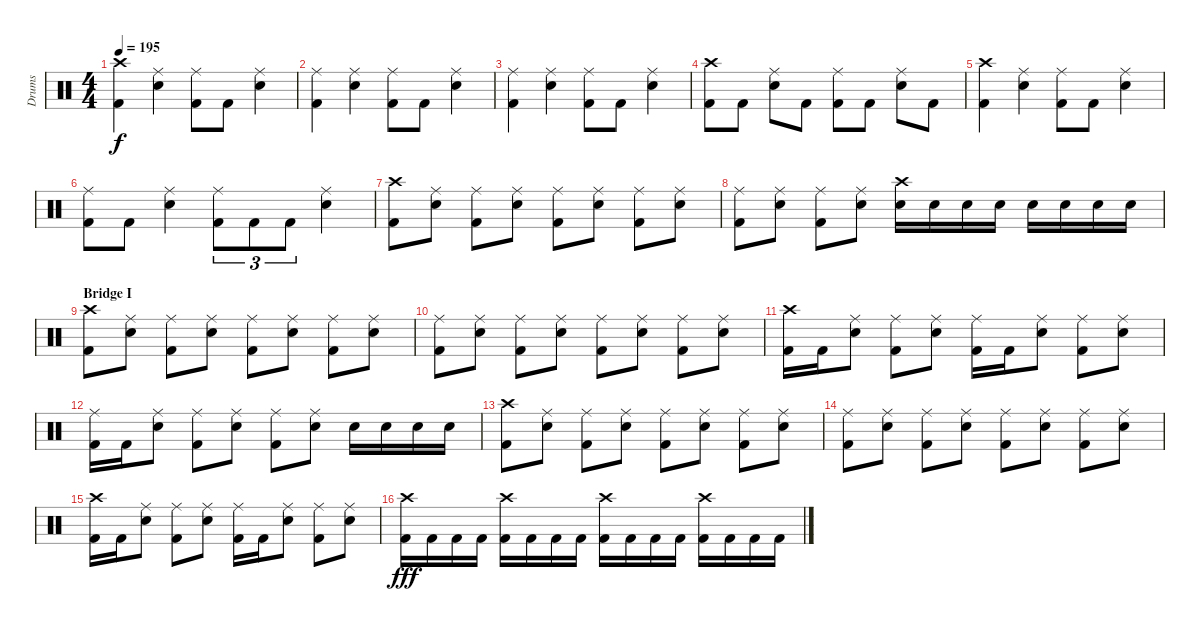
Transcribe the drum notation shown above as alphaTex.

\track ("Drums" "Drums") {instrument percussion}
\staff {score}
\articulation defaults
\ts (4 4)
\tempo 195
\clef neutral
\ks c
("Crash high (hit)" "Kick (hit) 2").4{dy f} ("Ride (middle)" "Snare (hit) 2").4 ("Ride (middle)" "Kick (hit) 2").8 "Kick (hit) 2".8 ("Ride (middle)" "Snare (hit) 2").4 |
("Ride (middle)" "Kick (hit) 2").4 ("Ride (middle)" "Snare (hit) 2").4 ("Ride (middle)" "Kick (hit) 2").8 "Kick (hit) 2".8 ("Ride (middle)" "Snare (hit) 2").4 |
("Ride (middle)" "Kick (hit) 2").4 ("Ride (middle)" "Snare (hit) 2").4 ("Ride (middle)" "Kick (hit) 2").8 "Kick (hit) 2".8 ("Ride (middle)" "Snare (hit) 2").4 |
("Crash high (hit)" "Kick (hit) 2").8 "Kick (hit) 2".8 ("Ride (middle)" "Snare (hit) 2").8 "Kick (hit) 2".8 ("Ride (middle)" "Kick (hit) 2").8 "Kick (hit) 2".8 ("Ride (middle)" "Snare (hit) 2").8 "Kick (hit) 2".8 |
("Crash high (hit)" "Kick (hit) 2").4 ("Ride (middle)" "Snare (hit) 2").4 ("Ride (middle)" "Kick (hit) 2").8 "Kick (hit) 2".8 ("Ride (middle)" "Snare (hit) 2").4 |
("Ride (middle)" "Kick (hit) 2").8 "Kick (hit) 2".8 ("Ride (middle)" "Snare (hit) 2").4 ("Ride (middle)" "Kick (hit) 2").8{tu (3 2)} "Kick (hit) 2".8{tu (3 2)} "Kick (hit) 2".8{tu (3 2)} ("Ride (middle)" "Snare (hit) 2").4 |
("Crash high (hit)" "Kick (hit) 2").8 ("Ride (middle)" "Snare (hit) 2").8 ("Ride (middle)" "Kick (hit) 2").8 ("Ride (middle)" "Snare (hit) 2").8 ("Ride (middle)" "Kick (hit) 2").8 ("Ride (middle)" "Snare (hit) 2").8 ("Ride (middle)" "Kick (hit) 2").8 ("Ride (middle)" "Snare (hit) 2").8 |
("Ride (middle)" "Kick (hit) 2").8 ("Ride (middle)" "Snare (hit) 2").8 ("Ride (middle)" "Kick (hit) 2").8 ("Ride (middle)" "Snare (hit) 2").8 ("Crash high (hit)" "Snare (hit) 2").16 "Snare (hit) 2".16 "Snare (hit) 2".16 "Snare (hit) 2".16 "Snare (hit) 2".16 "Snare (hit) 2".16 "Snare (hit) 2".16 "Snare (hit) 2".16 |
\section ("" "Bridge I")
("Crash high (hit)" "Kick (hit) 2").8 ("Ride (middle)" "Snare (hit) 2").8 ("Ride (middle)" "Kick (hit) 2").8 ("Ride (middle)" "Snare (hit) 2").8 ("Ride (middle)" "Kick (hit) 2").8 ("Ride (middle)" "Snare (hit) 2").8 ("Ride (middle)" "Kick (hit) 2").8 ("Ride (middle)" "Snare (hit) 2").8 |
("Ride (middle)" "Kick (hit) 2").8 ("Ride (middle)" "Snare (hit) 2").8 ("Ride (middle)" "Kick (hit) 2").8 ("Ride (middle)" "Snare (hit) 2").8 ("Ride (middle)" "Kick (hit) 2").8 ("Ride (middle)" "Snare (hit) 2").8 ("Ride (middle)" "Kick (hit) 2").8 ("Ride (middle)" "Snare (hit) 2").8 |
("Crash high (hit)" "Kick (hit) 2").16 "Kick (hit) 2".16 ("Ride (middle)" "Snare (hit) 2").8 ("Ride (middle)" "Kick (hit) 2").8 ("Ride (middle)" "Snare (hit) 2").8 ("Ride (middle)" "Kick (hit) 2").16 "Kick (hit) 2".16 ("Ride (middle)" "Snare (hit) 2").8 ("Ride (middle)" "Kick (hit) 2").8 ("Ride (middle)" "Snare (hit) 2").8 |
("Ride (middle)" "Kick (hit) 2").16 "Kick (hit) 2".16 ("Ride (middle)" "Snare (hit) 2").8 ("Ride (middle)" "Kick (hit) 2").8 ("Ride (middle)" "Snare (hit) 2").8 ("Ride (middle)" "Kick (hit) 2").8 ("Ride (middle)" "Snare (hit) 2").8 "Snare (hit) 2".16 "Snare (hit) 2".16 "Snare (hit) 2".16 "Snare (hit) 2".16 |
("Crash high (hit)" "Kick (hit) 2").8 ("Ride (middle)" "Snare (hit) 2").8 ("Ride (middle)" "Kick (hit) 2").8 ("Ride (middle)" "Snare (hit) 2").8 ("Ride (middle)" "Kick (hit) 2").8 ("Ride (middle)" "Snare (hit) 2").8 ("Ride (middle)" "Kick (hit) 2").8 ("Ride (middle)" "Snare (hit) 2").8 |
("Ride (middle)" "Kick (hit) 2").8 ("Ride (middle)" "Snare (hit) 2").8 ("Ride (middle)" "Kick (hit) 2").8 ("Ride (middle)" "Snare (hit) 2").8 ("Ride (middle)" "Kick (hit) 2").8 ("Ride (middle)" "Snare (hit) 2").8 ("Ride (middle)" "Kick (hit) 2").8 ("Ride (middle)" "Snare (hit) 2").8 |
("Crash high (hit)" "Kick (hit) 2").16 "Kick (hit) 2".16 ("Ride (middle)" "Snare (hit) 2").8 ("Ride (middle)" "Kick (hit) 2").8 ("Ride (middle)" "Snare (hit) 2").8 ("Ride (middle)" "Kick (hit) 2").16 "Kick (hit) 2".16 ("Ride (middle)" "Snare (hit) 2").8 ("Ride (middle)" "Kick (hit) 2").8 ("Ride (middle)" "Snare (hit) 2").8 |
("Crash high (hit)" "Kick (hit) 2").16{dy fff} "Kick (hit) 2".16 "Kick (hit) 2".16 "Kick (hit) 2".16 ("Crash high (hit)" "Kick (hit) 2").16 "Kick (hit) 2".16 "Kick (hit) 2".16 "Kick (hit) 2".16 ("Crash high (hit)" "Kick (hit) 2").16 "Kick (hit) 2".16 "Kick (hit) 2".16 "Kick (hit) 2".16 ("Crash high (hit)" "Kick (hit) 2").16 "Kick (hit) 2".16 "Kick (hit) 2".16 "Kick (hit) 2".16
